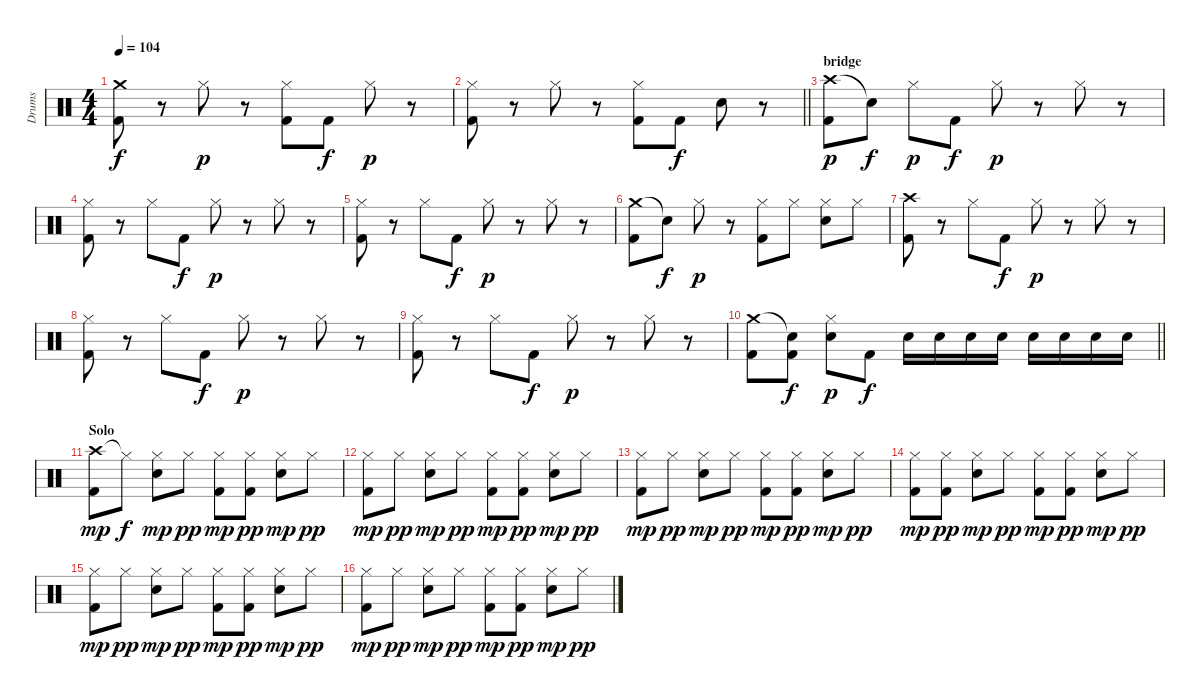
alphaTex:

\track ("Drums" "Drums") {instrument percussion}
\staff {score}
\articulation defaults
\ts (4 4)
\tempo 104
\clef neutral
\ks c
("Crash medium (hit)" "Kick (hit) 2").8{dy f} r.8 "Hi-Hat (closed)".8{dy p} r.8 ("Hi-Hat (closed)" "Kick (hit) 2").8 "Kick (hit) 2".8{dy f} "Hi-Hat (closed)".8{dy p} r.8 |
\barLineRight lightlight
("Hi-Hat (closed)" "Kick (hit) 2").8 r.8 "Hi-Hat (closed)".8 r.8 ("Hi-Hat (closed)" "Kick (hit) 2").8 "Kick (hit) 2".8{dy f} "Electric Snare (hit)".8 r.8 |
\section ("" "bridge")
("Crash high (hit)" "Kick (hit) 2").8{dy p} "Snare (hit)"{t}.8{dy f} "Hi-Hat (closed)".8{dy p} "Kick (hit) 2".8{dy f} "Hi-Hat (closed)".8{dy p} r.8 "Hi-Hat (closed)".8 r.8 |
("Hi-Hat (closed)" "Kick (hit) 2").8 r.8 "Hi-Hat (closed)".8 "Kick (hit) 2".8{dy f} "Hi-Hat (closed)".8{dy p} r.8 "Hi-Hat (closed)".8 r.8 |
("Hi-Hat (closed)" "Kick (hit) 2").8 r.8 "Hi-Hat (closed)".8 "Kick (hit) 2".8{dy f} "Hi-Hat (closed)".8{dy p} r.8 "Hi-Hat (closed)".8 r.8 |
("Crash medium (hit)" "Kick (hit) 2").8 "Snare (hit)"{t}.8{dy f} "Hi-Hat (closed)".8{dy p} r.8 ("Hi-Hat (closed)" "Kick (hit) 2").8 "Hi-Hat (closed)".8 ("Hi-Hat (closed)" "Electric Snare (hit)").8 "Hi-Hat (closed)".8 |
("Crash high (hit)" "Kick (hit) 2").8 r.8 "Hi-Hat (closed)".8 "Kick (hit) 2".8{dy f} "Hi-Hat (closed)".8{dy p} r.8 "Hi-Hat (closed)".8 r.8 |
("Hi-Hat (closed)" "Kick (hit) 2").8 r.8 "Hi-Hat (closed)".8 "Kick (hit) 2".8{dy f} "Hi-Hat (closed)".8{dy p} r.8 "Hi-Hat (closed)".8 r.8 |
("Hi-Hat (closed)" "Kick (hit) 2").8 r.8 "Hi-Hat (closed)".8 "Kick (hit) 2".8{dy f} "Hi-Hat (closed)".8{dy p} r.8 "Hi-Hat (closed)".8 r.8 |
\barLineRight lightlight
("Crash medium (hit)" "Kick (hit) 2").8 ("Snare (hit)"{t} "Kick (hit) 2").8{dy f} ("Hi-Hat (closed)" "Electric Snare (hit)").8{dy p} "Kick (hit) 2".8{dy f} "Electric Snare (hit)".16 "Electric Snare (hit)".16 "Electric Snare (hit)".16 "Electric Snare (hit)".16 "Electric Snare (hit)".16 "Electric Snare (hit)".16 "Electric Snare (hit)".16 "Electric Snare (hit)".16 |
\section ("" "Solo")
("Crash high (hit)" "Kick (hit) 2").8{dy mp} "Hi-Hat (closed)"{t}.8{dy f} ("Hi-Hat (closed)" "Electric Snare (hit)").8{dy mp} "Hi-Hat (closed)".8{dy pp} ("Hi-Hat (closed)" "Kick (hit) 2").8{dy mp} ("Hi-Hat (closed)" "Kick (hit) 2").8{dy pp} ("Hi-Hat (closed)" "Electric Snare (hit)").8{dy mp} "Hi-Hat (closed)".8{dy pp} |
("Hi-Hat (closed)" "Kick (hit) 2").8{dy mp} "Hi-Hat (closed)".8{dy pp} ("Hi-Hat (closed)" "Electric Snare (hit)").8{dy mp} "Hi-Hat (closed)".8{dy pp} ("Hi-Hat (closed)" "Kick (hit) 2").8{dy mp} ("Hi-Hat (closed)" "Kick (hit) 2").8{dy pp} ("Hi-Hat (closed)" "Electric Snare (hit)").8{dy mp} "Hi-Hat (closed)".8{dy pp} |
("Hi-Hat (closed)" "Kick (hit) 2").8{dy mp} "Hi-Hat (closed)".8{dy pp} ("Hi-Hat (closed)" "Electric Snare (hit)").8{dy mp} "Hi-Hat (closed)".8{dy pp} ("Hi-Hat (closed)" "Kick (hit) 2").8{dy mp} ("Hi-Hat (closed)" "Kick (hit) 2").8{dy pp} ("Hi-Hat (closed)" "Electric Snare (hit)").8{dy mp} "Hi-Hat (closed)".8{dy pp} |
("Hi-Hat (closed)" "Kick (hit) 2").8{dy mp} ("Hi-Hat (closed)" "Kick (hit) 2").8{dy pp} ("Hi-Hat (closed)" "Electric Snare (hit)").8{dy mp} "Hi-Hat (closed)".8{dy pp} ("Hi-Hat (closed)" "Kick (hit) 2").8{dy mp} ("Hi-Hat (closed)" "Kick (hit) 2").8{dy pp} ("Hi-Hat (closed)" "Electric Snare (hit)").8{dy mp} "Hi-Hat (closed)".8{dy pp} |
("Hi-Hat (closed)" "Kick (hit) 2").8{dy mp} "Hi-Hat (closed)".8{dy pp} ("Hi-Hat (closed)" "Electric Snare (hit)").8{dy mp} "Hi-Hat (closed)".8{dy pp} ("Hi-Hat (closed)" "Kick (hit) 2").8{dy mp} ("Hi-Hat (closed)" "Kick (hit) 2").8{dy pp} ("Hi-Hat (closed)" "Electric Snare (hit)").8{dy mp} "Hi-Hat (closed)".8{dy pp} |
("Hi-Hat (closed)" "Kick (hit) 2").8{dy mp} "Hi-Hat (closed)".8{dy pp} ("Hi-Hat (closed)" "Electric Snare (hit)").8{dy mp} "Hi-Hat (closed)".8{dy pp} ("Hi-Hat (closed)" "Kick (hit) 2").8{dy mp} ("Hi-Hat (closed)" "Kick (hit) 2").8{dy pp} ("Hi-Hat (closed)" "Electric Snare (hit)").8{dy mp} "Hi-Hat (closed)".8{dy pp}
